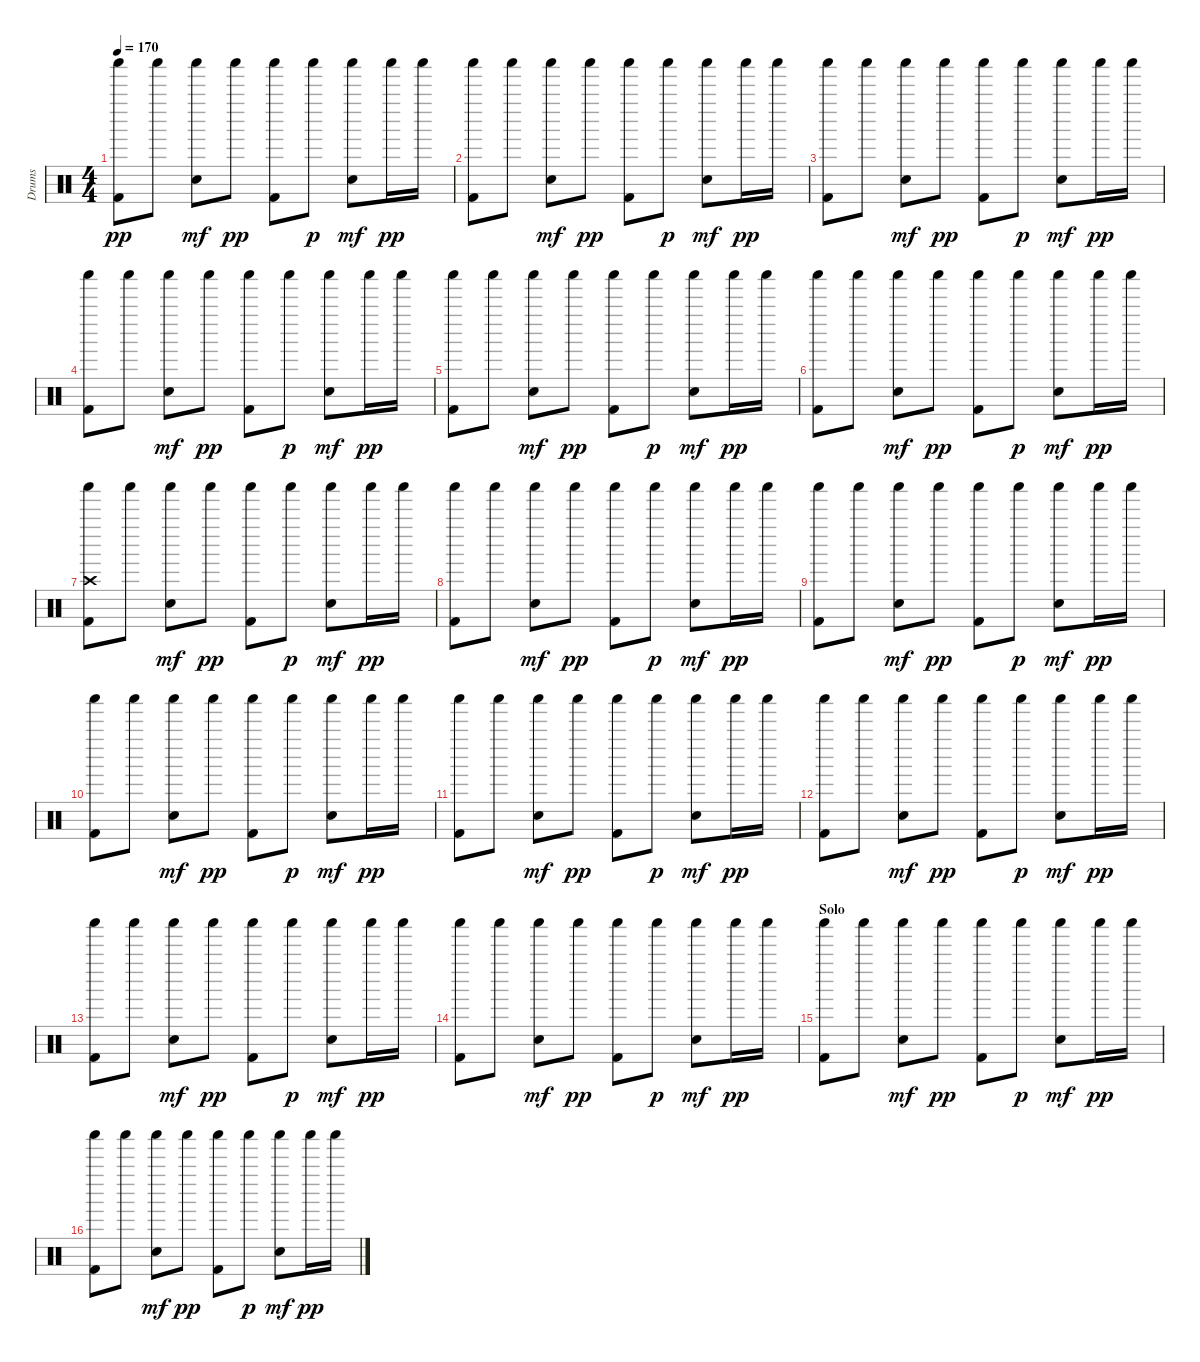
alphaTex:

\track ("Drums" "Drums") {instrument percussion}
\staff {score}
\articulation defaults
\ts (4 4)
\tempo 170
\clef neutral
\ks c
("Kick (hit) 2" "Shaker (hit)").8{dy pp} "Shaker (hit)".8 ("Snare (hit) 2" "Shaker (hit)").8{dy mf} "Shaker (hit)".8{dy pp} ("Kick (hit) 2" "Shaker (hit)").8 "Shaker (hit)".8{dy p} ("Snare (hit) 2" "Shaker (hit)").8{dy mf} "Shaker (hit)".16{dy pp} "Shaker (hit)".16 |
("Kick (hit) 2" "Shaker (hit)").8 "Shaker (hit)".8 ("Snare (hit) 2" "Shaker (hit)").8{dy mf} "Shaker (hit)".8{dy pp} ("Kick (hit) 2" "Shaker (hit)").8 "Shaker (hit)".8{dy p} ("Snare (hit) 2" "Shaker (hit)").8{dy mf} "Shaker (hit)".16{dy pp} "Shaker (hit)".16 |
("Kick (hit) 2" "Shaker (hit)").8 "Shaker (hit)".8 ("Snare (hit) 2" "Shaker (hit)").8{dy mf} "Shaker (hit)".8{dy pp} ("Kick (hit) 2" "Shaker (hit)").8 "Shaker (hit)".8{dy p} ("Snare (hit) 2" "Shaker (hit)").8{dy mf} "Shaker (hit)".16{dy pp} "Shaker (hit)".16 |
("Kick (hit) 2" "Shaker (hit)").8 "Shaker (hit)".8 ("Snare (hit) 2" "Shaker (hit)").8{dy mf} "Shaker (hit)".8{dy pp} ("Kick (hit) 2" "Shaker (hit)").8 "Shaker (hit)".8{dy p} ("Snare (hit) 2" "Shaker (hit)").8{dy mf} "Shaker (hit)".16{dy pp} "Shaker (hit)".16 |
("Kick (hit) 2" "Shaker (hit)").8 "Shaker (hit)".8 ("Snare (hit) 2" "Shaker (hit)").8{dy mf} "Shaker (hit)".8{dy pp} ("Kick (hit) 2" "Shaker (hit)").8 "Shaker (hit)".8{dy p} ("Snare (hit) 2" "Shaker (hit)").8{dy mf} "Shaker (hit)".16{dy pp} "Shaker (hit)".16 |
("Kick (hit) 2" "Shaker (hit)").8 "Shaker (hit)".8 ("Snare (hit) 2" "Shaker (hit)").8{dy mf} "Shaker (hit)".8{dy pp} ("Kick (hit) 2" "Shaker (hit)").8 "Shaker (hit)".8{dy p} ("Snare (hit) 2" "Shaker (hit)").8{dy mf} "Shaker (hit)".16{dy pp} "Shaker (hit)".16 |
("Crash high (hit)" "Kick (hit) 2" "Shaker (hit)").8 "Shaker (hit)".8 ("Snare (hit) 2" "Shaker (hit)").8{dy mf} "Shaker (hit)".8{dy pp} ("Kick (hit) 2" "Shaker (hit)").8 "Shaker (hit)".8{dy p} ("Snare (hit) 2" "Shaker (hit)").8{dy mf} "Shaker (hit)".16{dy pp} "Shaker (hit)".16 |
("Kick (hit) 2" "Shaker (hit)").8 "Shaker (hit)".8 ("Snare (hit) 2" "Shaker (hit)").8{dy mf} "Shaker (hit)".8{dy pp} ("Kick (hit) 2" "Shaker (hit)").8 "Shaker (hit)".8{dy p} ("Snare (hit) 2" "Shaker (hit)").8{dy mf} "Shaker (hit)".16{dy pp} "Shaker (hit)".16 |
("Kick (hit) 2" "Shaker (hit)").8 "Shaker (hit)".8 ("Snare (hit) 2" "Shaker (hit)").8{dy mf} "Shaker (hit)".8{dy pp} ("Kick (hit) 2" "Shaker (hit)").8 "Shaker (hit)".8{dy p} ("Snare (hit) 2" "Shaker (hit)").8{dy mf} "Shaker (hit)".16{dy pp} "Shaker (hit)".16 |
("Kick (hit) 2" "Shaker (hit)").8 "Shaker (hit)".8 ("Snare (hit) 2" "Shaker (hit)").8{dy mf} "Shaker (hit)".8{dy pp} ("Kick (hit) 2" "Shaker (hit)").8 "Shaker (hit)".8{dy p} ("Snare (hit) 2" "Shaker (hit)").8{dy mf} "Shaker (hit)".16{dy pp} "Shaker (hit)".16 |
("Kick (hit) 2" "Shaker (hit)").8 "Shaker (hit)".8 ("Snare (hit) 2" "Shaker (hit)").8{dy mf} "Shaker (hit)".8{dy pp} ("Kick (hit) 2" "Shaker (hit)").8 "Shaker (hit)".8{dy p} ("Snare (hit) 2" "Shaker (hit)").8{dy mf} "Shaker (hit)".16{dy pp} "Shaker (hit)".16 |
("Kick (hit) 2" "Shaker (hit)").8 "Shaker (hit)".8 ("Snare (hit) 2" "Shaker (hit)").8{dy mf} "Shaker (hit)".8{dy pp} ("Kick (hit) 2" "Shaker (hit)").8 "Shaker (hit)".8{dy p} ("Snare (hit) 2" "Shaker (hit)").8{dy mf} "Shaker (hit)".16{dy pp} "Shaker (hit)".16 |
("Kick (hit) 2" "Shaker (hit)").8 "Shaker (hit)".8 ("Snare (hit) 2" "Shaker (hit)").8{dy mf} "Shaker (hit)".8{dy pp} ("Kick (hit) 2" "Shaker (hit)").8 "Shaker (hit)".8{dy p} ("Snare (hit) 2" "Shaker (hit)").8{dy mf} "Shaker (hit)".16{dy pp} "Shaker (hit)".16 |
("Kick (hit) 2" "Shaker (hit)").8 "Shaker (hit)".8 ("Snare (hit) 2" "Shaker (hit)").8{dy mf} "Shaker (hit)".8{dy pp} ("Kick (hit) 2" "Shaker (hit)").8 "Shaker (hit)".8{dy p} ("Snare (hit) 2" "Shaker (hit)").8{dy mf} "Shaker (hit)".16{dy pp} "Shaker (hit)".16 |
\section ("" "Solo")
("Kick (hit) 2" "Shaker (hit)").8 "Shaker (hit)".8 ("Snare (hit) 2" "Shaker (hit)").8{dy mf} "Shaker (hit)".8{dy pp} ("Kick (hit) 2" "Shaker (hit)").8 "Shaker (hit)".8{dy p} ("Snare (hit) 2" "Shaker (hit)").8{dy mf} "Shaker (hit)".16{dy pp} "Shaker (hit)".16 |
("Kick (hit) 2" "Shaker (hit)").8 "Shaker (hit)".8 ("Snare (hit) 2" "Shaker (hit)").8{dy mf} "Shaker (hit)".8{dy pp} ("Kick (hit) 2" "Shaker (hit)").8 "Shaker (hit)".8{dy p} ("Snare (hit) 2" "Shaker (hit)").8{dy mf} "Shaker (hit)".16{dy pp} "Shaker (hit)".16
